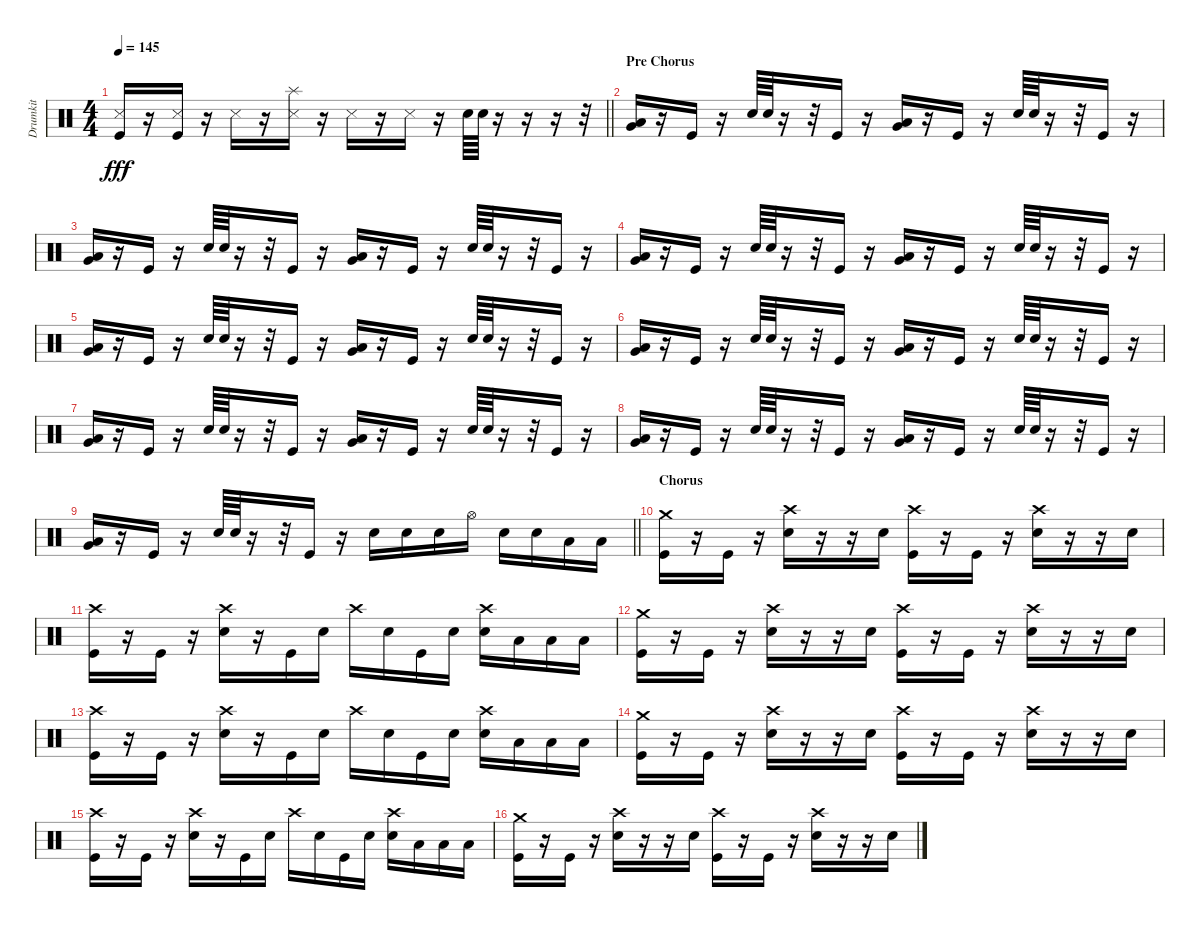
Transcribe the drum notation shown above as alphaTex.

\track ("Drumkit" "Drumkit") {instrument percussion}
\staff {score}
\articulation defaults
\ts (4 4)
\tempo 145
\clef neutral
\barLineRight lightlight
\ks c
("Snare (side stick) 3" "Kick (hit)").16{dy fff} r.16 ("Snare (side stick) 3" "Kick (hit)").16 r.16 "Snare (side stick) 3".16 r.16 ("Splash (hit)" "Snare (side stick) 3").16 r.16 "Snare (side stick) 3".16 r.16 "Snare (side stick) 3".16 r.16 "Snare (hit) 2".64 "Snare (hit) 2".64 r.16 r.16 r.16 r.32 |
\section ("" "Pre Chorus")
("Very Low Tom (hit)" "Low Floor Tom (hit)").16 r.16 "Kick (hit)".16 r.16 "Snare (hit) 2".64 "Snare (hit) 2".64 r.16 r.32 "Kick (hit)".16 r.16 ("Very Low Tom (hit)" "Low Floor Tom (hit)").16 r.16 "Kick (hit)".16 r.16 "Snare (hit) 2".64 "Snare (hit) 2".64 r.16 r.32 "Kick (hit)".16 r.16 |
("Very Low Tom (hit)" "Low Floor Tom (hit)").16 r.16 "Kick (hit)".16 r.16 "Snare (hit) 2".64 "Snare (hit) 2".64 r.16 r.32 "Kick (hit)".16 r.16 ("Very Low Tom (hit)" "Low Floor Tom (hit)").16 r.16 "Kick (hit)".16 r.16 "Snare (hit) 2".64 "Snare (hit) 2".64 r.16 r.32 "Kick (hit)".16 r.16 |
("Very Low Tom (hit)" "Low Floor Tom (hit)").16 r.16 "Kick (hit)".16 r.16 "Snare (hit) 2".64 "Snare (hit) 2".64 r.16 r.32 "Kick (hit)".16 r.16 ("Very Low Tom (hit)" "Low Floor Tom (hit)").16 r.16 "Kick (hit)".16 r.16 "Snare (hit) 2".64 "Snare (hit) 2".64 r.16 r.32 "Kick (hit)".16 r.16 |
("Very Low Tom (hit)" "Low Floor Tom (hit)").16 r.16 "Kick (hit)".16 r.16 "Snare (hit) 2".64 "Snare (hit) 2".64 r.16 r.32 "Kick (hit)".16 r.16 ("Very Low Tom (hit)" "Low Floor Tom (hit)").16 r.16 "Kick (hit)".16 r.16 "Snare (hit) 2".64 "Snare (hit) 2".64 r.16 r.32 "Kick (hit)".16 r.16 |
("Very Low Tom (hit)" "Low Floor Tom (hit)").16 r.16 "Kick (hit)".16 r.16 "Snare (hit) 2".64 "Snare (hit) 2".64 r.16 r.32 "Kick (hit)".16 r.16 ("Very Low Tom (hit)" "Low Floor Tom (hit)").16 r.16 "Kick (hit)".16 r.16 "Snare (hit) 2".64 "Snare (hit) 2".64 r.16 r.32 "Kick (hit)".16 r.16 |
("Very Low Tom (hit)" "Low Floor Tom (hit)").16 r.16 "Kick (hit)".16 r.16 "Snare (hit) 2".64 "Snare (hit) 2".64 r.16 r.32 "Kick (hit)".16 r.16 ("Very Low Tom (hit)" "Low Floor Tom (hit)").16 r.16 "Kick (hit)".16 r.16 "Snare (hit) 2".64 "Snare (hit) 2".64 r.16 r.32 "Kick (hit)".16 r.16 |
("Very Low Tom (hit)" "Low Floor Tom (hit)").16 r.16 "Kick (hit)".16 r.16 "Snare (hit) 2".64 "Snare (hit) 2".64 r.16 r.32 "Kick (hit)".16 r.16 ("Very Low Tom (hit)" "Low Floor Tom (hit)").16 r.16 "Kick (hit)".16 r.16 "Snare (hit) 2".64 "Snare (hit) 2".64 r.16 r.32 "Kick (hit)".16 r.16 |
\barLineRight lightlight
("Very Low Tom (hit)" "Low Floor Tom (hit)").16 r.16 "Kick (hit)".16 r.16 "Snare (hit) 2".64 "Snare (hit) 2".64 r.16 r.32 "Kick (hit)".16 r.16 "Snare (hit) 2".16 "Snare (hit) 2".16 "Snare (hit) 2".16 "Hi-Hat (open)".16 "Snare (hit) 2".16 "Snare (hit) 2".16 "Low Tom (hit)".16 "Low Tom (hit)".16 |
\section ("" "Chorus")
("Crash medium (hit)" "Kick (hit)").16 r.16 "Kick (hit)".16 r.16 ("Crash high (hit)" "Snare (hit) 2").16 r.16 r.16 "Snare (hit) 2".16 ("Crash high (hit)" "Kick (hit)").16 r.16 "Kick (hit)".16 r.16 ("Crash high (hit)" "Snare (hit) 2").16 r.16 r.16 "Snare (hit) 2".16 |
("Crash high (hit)" "Kick (hit)").16 r.16 "Kick (hit)".16 r.16 ("Crash high (hit)" "Snare (hit) 2").16 r.16 "Kick (hit)".16 "Snare (hit) 2".16 "Crash high (hit)".16 "Snare (hit) 2".16 "Kick (hit)".16 "Snare (hit) 2".16 ("Crash high (hit)" "Snare (hit) 2").16 "Low Tom (hit)".16 "Low Tom (hit)".16 "Low Floor Tom (hit)".16 |
("Crash medium (hit)" "Kick (hit)").16 r.16 "Kick (hit)".16 r.16 ("Crash high (hit)" "Snare (hit) 2").16 r.16 r.16 "Snare (hit) 2".16 ("Crash high (hit)" "Kick (hit)").16 r.16 "Kick (hit)".16 r.16 ("Crash high (hit)" "Snare (hit) 2").16 r.16 r.16 "Snare (hit) 2".16 |
("Crash high (hit)" "Kick (hit)").16 r.16 "Kick (hit)".16 r.16 ("Crash high (hit)" "Snare (hit) 2").16 r.16 "Kick (hit)".16 "Snare (hit) 2".16 "Crash high (hit)".16 "Snare (hit) 2".16 "Kick (hit)".16 "Snare (hit) 2".16 ("Crash high (hit)" "Snare (hit) 2").16 "Low Tom (hit)".16 "Low Tom (hit)".16 "Low Floor Tom (hit)".16 |
("Crash medium (hit)" "Kick (hit)").16 r.16 "Kick (hit)".16 r.16 ("Crash high (hit)" "Snare (hit) 2").16 r.16 r.16 "Snare (hit) 2".16 ("Crash high (hit)" "Kick (hit)").16 r.16 "Kick (hit)".16 r.16 ("Crash high (hit)" "Snare (hit) 2").16 r.16 r.16 "Snare (hit) 2".16 |
("Crash high (hit)" "Kick (hit)").16 r.16 "Kick (hit)".16 r.16 ("Crash high (hit)" "Snare (hit) 2").16 r.16 "Kick (hit)".16 "Snare (hit) 2".16 "Crash high (hit)".16 "Snare (hit) 2".16 "Kick (hit)".16 "Snare (hit) 2".16 ("Crash high (hit)" "Snare (hit) 2").16 "Low Tom (hit)".16 "Low Tom (hit)".16 "Low Floor Tom (hit)".16 |
("Crash medium (hit)" "Kick (hit)").16 r.16 "Kick (hit)".16 r.16 ("Crash high (hit)" "Snare (hit) 2").16 r.16 r.16 "Snare (hit) 2".16 ("Crash high (hit)" "Kick (hit)").16 r.16 "Kick (hit)".16 r.16 ("Crash high (hit)" "Snare (hit) 2").16 r.16 r.16 "Snare (hit) 2".16
